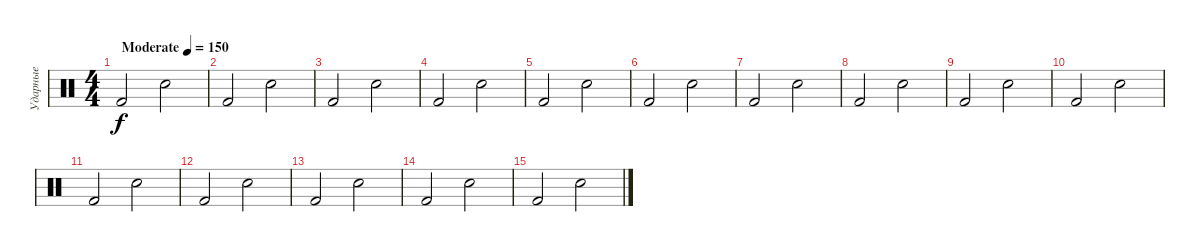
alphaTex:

\track ("Ударные" "Ударные") {instrument percussion}
\staff
\articulation defaults
\ts (4 4)
\tempo (150 "Moderate")
\clef neutral
\ks c "Kick (hit) 2".2{dy f} "Snare (hit) 2".2
|
"Kick (hit) 2".2 "Snare (hit) 2".2 |
"Kick (hit) 2".2 "Snare (hit) 2".2 |
"Kick (hit) 2".2 "Snare (hit) 2".2 |
"Kick (hit) 2".2 "Snare (hit) 2".2 |
"Kick (hit) 2".2 "Snare (hit) 2".2 |
"Kick (hit) 2".2 "Snare (hit) 2".2 |
"Kick (hit) 2".2 "Snare (hit) 2".2 |
"Kick (hit) 2".2 "Snare (hit) 2".2 |
"Kick (hit) 2".2 "Snare (hit) 2".2 |
"Kick (hit) 2".2 "Snare (hit) 2".2 |
"Kick (hit) 2".2 "Snare (hit) 2".2 |
"Kick (hit) 2".2 "Snare (hit) 2".2 |
"Kick (hit) 2".2 "Snare (hit) 2".2 |
"Kick (hit) 2".2 "Snare (hit) 2".2
